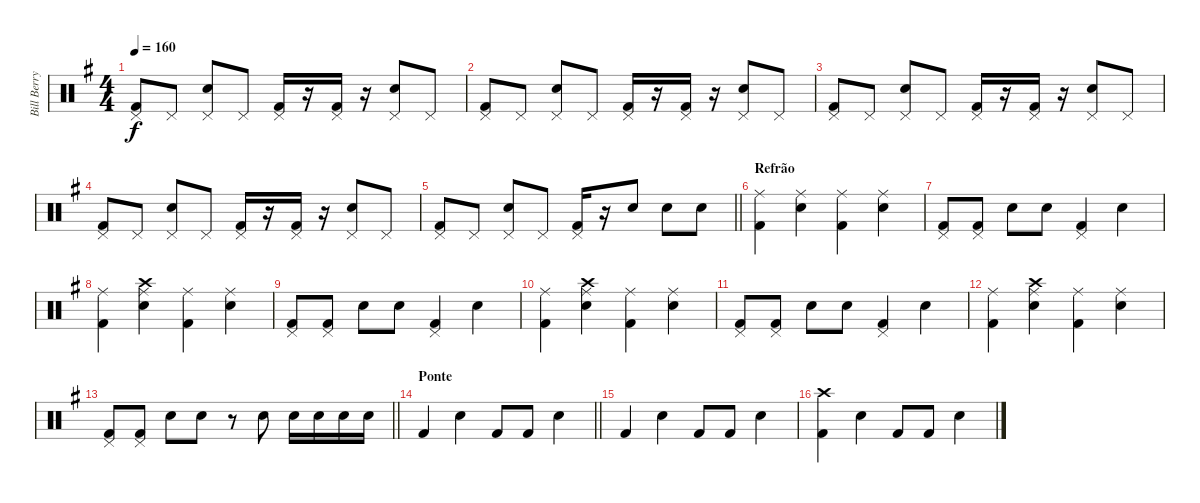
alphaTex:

\track ("Bill Berry" "Bill Berry") {instrument percussion}
\staff {score}
\articulation defaults
\ts (4 4)
\tempo 160
\clef neutral
\ks g
("Kick (hit) 2" "Pedal Hi-Hat (hit)").8{dy f} "Pedal Hi-Hat (hit)".8 ("Snare (hit) 2" "Pedal Hi-Hat (hit)").8 "Pedal Hi-Hat (hit)".8 ("Kick (hit) 2" "Pedal Hi-Hat (hit)").16 r.16 ("Kick (hit) 2" "Pedal Hi-Hat (hit)").16 r.16 ("Snare (hit) 2" "Pedal Hi-Hat (hit)").8 "Pedal Hi-Hat (hit)".8 |
("Kick (hit) 2" "Pedal Hi-Hat (hit)").8 "Pedal Hi-Hat (hit)".8 ("Snare (hit) 2" "Pedal Hi-Hat (hit)").8 "Pedal Hi-Hat (hit)".8 ("Kick (hit) 2" "Pedal Hi-Hat (hit)").16 r.16 ("Kick (hit) 2" "Pedal Hi-Hat (hit)").16 r.16 ("Snare (hit) 2" "Pedal Hi-Hat (hit)").8 "Pedal Hi-Hat (hit)".8 |
("Kick (hit) 2" "Pedal Hi-Hat (hit)").8 "Pedal Hi-Hat (hit)".8 ("Snare (hit) 2" "Pedal Hi-Hat (hit)").8 "Pedal Hi-Hat (hit)".8 ("Kick (hit) 2" "Pedal Hi-Hat (hit)").16 r.16 ("Kick (hit) 2" "Pedal Hi-Hat (hit)").16 r.16 ("Snare (hit) 2" "Pedal Hi-Hat (hit)").8 "Pedal Hi-Hat (hit)".8 |
("Kick (hit) 2" "Pedal Hi-Hat (hit)").8 "Pedal Hi-Hat (hit)".8 ("Snare (hit) 2" "Pedal Hi-Hat (hit)").8 "Pedal Hi-Hat (hit)".8 ("Kick (hit) 2" "Pedal Hi-Hat (hit)").16 r.16 ("Kick (hit) 2" "Pedal Hi-Hat (hit)").16 r.16 ("Snare (hit) 2" "Pedal Hi-Hat (hit)").8 "Pedal Hi-Hat (hit)".8 |
\barLineRight lightlight
("Kick (hit) 2" "Pedal Hi-Hat (hit)").8 "Pedal Hi-Hat (hit)".8 ("Snare (hit) 2" "Pedal Hi-Hat (hit)").8 "Pedal Hi-Hat (hit)".8 ("Kick (hit) 2" "Pedal Hi-Hat (hit)").16 r.16 "Snare (hit) 2".8 "Snare (hit) 2".8 "Snare (hit) 2".8 |
\section ("" "Refrão")
("Kick (hit) 2" "Ride (middle)").4 ("Snare (hit) 2" "Ride (middle)").4 ("Kick (hit) 2" "Ride (middle)").4 ("Snare (hit) 2" "Ride (middle)").4 |
("Kick (hit) 2" "Pedal Hi-Hat (hit)").8 ("Kick (hit) 2" "Pedal Hi-Hat (hit)").8 "Snare (hit) 2".8 "Snare (hit) 2".8 ("Kick (hit) 2" "Pedal Hi-Hat (hit)").4 "Snare (hit) 2".4 |
("Kick (hit) 2" "Ride (middle)").4 ("Snare (hit) 2" "Ride (middle)" "Crash high (hit)").4 ("Kick (hit) 2" "Ride (middle)").4 ("Snare (hit) 2" "Ride (middle)").4 |
("Kick (hit) 2" "Pedal Hi-Hat (hit)").8 ("Kick (hit) 2" "Pedal Hi-Hat (hit)").8 "Snare (hit) 2".8 "Snare (hit) 2".8 ("Kick (hit) 2" "Pedal Hi-Hat (hit)").4 "Snare (hit) 2".4 |
("Kick (hit) 2" "Ride (middle)").4 ("Snare (hit) 2" "Ride (middle)" "Crash high (hit)").4 ("Kick (hit) 2" "Ride (middle)").4 ("Snare (hit) 2" "Ride (middle)").4 |
("Kick (hit) 2" "Pedal Hi-Hat (hit)").8 ("Kick (hit) 2" "Pedal Hi-Hat (hit)").8 "Snare (hit) 2".8 "Snare (hit) 2".8 ("Kick (hit) 2" "Pedal Hi-Hat (hit)").4 "Snare (hit) 2".4 |
("Kick (hit) 2" "Ride (middle)").4 ("Snare (hit) 2" "Ride (middle)" "Crash high (hit)").4 ("Kick (hit) 2" "Ride (middle)").4 ("Snare (hit) 2" "Ride (middle)").4 |
\barLineRight lightlight
("Kick (hit) 2" "Pedal Hi-Hat (hit)").8 ("Kick (hit) 2" "Pedal Hi-Hat (hit)").8 "Snare (hit) 2".8 "Snare (hit) 2".8 r.8 "Snare (hit) 2".8 "Snare (hit) 2".16 "Snare (hit) 2".16 "Snare (hit) 2".16 "Snare (hit) 2".16 |
\section ("" "Ponte")
\barLineRight lightlight "Kick (hit) 2".4 "Snare (hit) 2".4 "Kick (hit) 2".8 "Kick (hit) 2".8 "Snare (hit) 2".4
|
\section ("" "")
"Kick (hit) 2".4 "Snare (hit) 2".4 "Kick (hit) 2".8 "Kick (hit) 2".8 "Snare (hit) 2".4 |
("Kick (hit) 2" "Crash high (hit)").4 "Snare (hit) 2".4 "Kick (hit) 2".8 "Kick (hit) 2".8 "Snare (hit) 2".4
